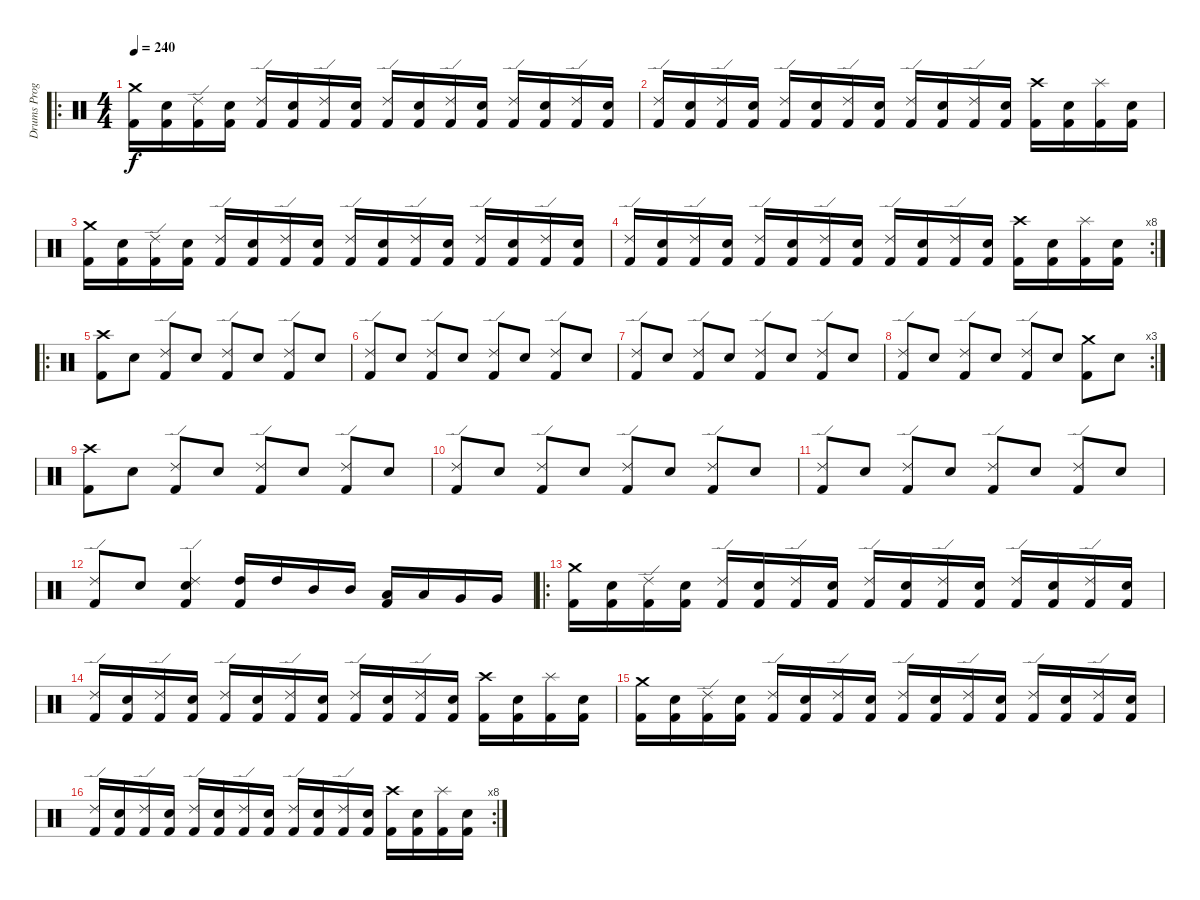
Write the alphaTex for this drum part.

\track ("Drums Programming" "Drums Prog") {instrument percussion}
\staff {score}
\articulation defaults
\ro
\ts (4 4)
\tempo 240
\clef neutral
\ks c
("Crash medium (hit)" "Kick (hit) 2").16{dy f} ("Electric Snare (hit)" "Kick (hit) 2").16 ("Ride (edge) 2" "Kick (hit) 2").16 ("Electric Snare (hit)" "Kick (hit) 2").16 ("Ride (edge) 2" "Kick (hit) 2").16 ("Electric Snare (hit)" "Kick (hit) 2").16 ("Ride (edge) 2" "Kick (hit) 2").16 ("Electric Snare (hit)" "Kick (hit) 2").16 ("Ride (edge) 2" "Kick (hit) 2").16 ("Electric Snare (hit)" "Kick (hit) 2").16 ("Ride (edge) 2" "Kick (hit) 2").16 ("Electric Snare (hit)" "Kick (hit) 2").16 ("Ride (edge) 2" "Kick (hit) 2").16 ("Electric Snare (hit)" "Kick (hit) 2").16 ("Ride (edge) 2" "Kick (hit) 2").16 ("Electric Snare (hit)" "Kick (hit) 2").16 |
("Ride (edge) 2" "Kick (hit) 2").16 ("Electric Snare (hit)" "Kick (hit) 2").16 ("Ride (edge) 2" "Kick (hit) 2").16 ("Electric Snare (hit)" "Kick (hit) 2").16 ("Ride (edge) 2" "Kick (hit) 2").16 ("Electric Snare (hit)" "Kick (hit) 2").16 ("Ride (edge) 2" "Kick (hit) 2").16 ("Electric Snare (hit)" "Kick (hit) 2").16 ("Ride (edge) 2" "Kick (hit) 2").16 ("Electric Snare (hit)" "Kick (hit) 2").16 ("Ride (edge) 2" "Kick (hit) 2").16 ("Electric Snare (hit)" "Kick (hit) 2").16 ("Crash high (hit)" "Kick (hit) 2").16 ("Electric Snare (hit)" "Kick (hit) 2").16 ("Splash (hit)" "Kick (hit) 2").16 ("Electric Snare (hit)" "Kick (hit) 2").16 |
("Crash medium (hit)" "Kick (hit) 2").16 ("Electric Snare (hit)" "Kick (hit) 2").16 ("Ride (edge) 2" "Kick (hit) 2").16 ("Electric Snare (hit)" "Kick (hit) 2").16 ("Ride (edge) 2" "Kick (hit) 2").16 ("Electric Snare (hit)" "Kick (hit) 2").16 ("Ride (edge) 2" "Kick (hit) 2").16 ("Electric Snare (hit)" "Kick (hit) 2").16 ("Ride (edge) 2" "Kick (hit) 2").16 ("Electric Snare (hit)" "Kick (hit) 2").16 ("Ride (edge) 2" "Kick (hit) 2").16 ("Electric Snare (hit)" "Kick (hit) 2").16 ("Ride (edge) 2" "Kick (hit) 2").16 ("Electric Snare (hit)" "Kick (hit) 2").16 ("Ride (edge) 2" "Kick (hit) 2").16 ("Electric Snare (hit)" "Kick (hit) 2").16 |
\rc 8
("Ride (edge) 2" "Kick (hit) 2").16 ("Electric Snare (hit)" "Kick (hit) 2").16 ("Ride (edge) 2" "Kick (hit) 2").16 ("Electric Snare (hit)" "Kick (hit) 2").16 ("Ride (edge) 2" "Kick (hit) 2").16 ("Electric Snare (hit)" "Kick (hit) 2").16 ("Ride (edge) 2" "Kick (hit) 2").16 ("Electric Snare (hit)" "Kick (hit) 2").16 ("Ride (edge) 2" "Kick (hit) 2").16 ("Electric Snare (hit)" "Kick (hit) 2").16 ("Ride (edge) 2" "Kick (hit) 2").16 ("Electric Snare (hit)" "Kick (hit) 2").16 ("Crash high (hit)" "Kick (hit) 2").16 ("Electric Snare (hit)" "Kick (hit) 2").16 ("Splash (hit)" "Kick (hit) 2").16 ("Electric Snare (hit)" "Kick (hit) 2").16 |
\ro
("Crash high (hit)" "Kick (hit) 2").8 "Electric Snare (hit)".8 ("Ride (edge) 2" "Kick (hit) 2").8 "Electric Snare (hit)".8 ("Ride (edge) 2" "Kick (hit) 2").8 "Electric Snare (hit)".8 ("Ride (edge) 2" "Kick (hit) 2").8 "Electric Snare (hit)".8 |
("Ride (edge) 2" "Kick (hit) 2").8 "Electric Snare (hit)".8 ("Ride (edge) 2" "Kick (hit) 2").8 "Electric Snare (hit)".8 ("Ride (edge) 2" "Kick (hit) 2").8 "Electric Snare (hit)".8 ("Ride (edge) 2" "Kick (hit) 2").8 "Electric Snare (hit)".8 |
("Ride (edge) 2" "Kick (hit) 2").8 "Electric Snare (hit)".8 ("Ride (edge) 2" "Kick (hit) 2").8 "Electric Snare (hit)".8 ("Ride (edge) 2" "Kick (hit) 2").8 "Electric Snare (hit)".8 ("Ride (edge) 2" "Kick (hit) 2").8 "Electric Snare (hit)".8 |
\rc 3
("Ride (edge) 2" "Kick (hit) 2").8 "Electric Snare (hit)".8 ("Ride (edge) 2" "Kick (hit) 2").8 "Electric Snare (hit)".8 ("Ride (edge) 2" "Kick (hit) 2").8 "Electric Snare (hit)".8 ("Crash medium (hit)" "Kick (hit) 2").8 "Electric Snare (hit)".8 |
("Crash high (hit)" "Kick (hit) 2").8 "Electric Snare (hit)".8 ("Ride (edge) 2" "Kick (hit) 2").8 "Electric Snare (hit)".8 ("Ride (edge) 2" "Kick (hit) 2").8 "Electric Snare (hit)".8 ("Ride (edge) 2" "Kick (hit) 2").8 "Electric Snare (hit)".8 |
("Ride (edge) 2" "Kick (hit) 2").8 "Electric Snare (hit)".8 ("Ride (edge) 2" "Kick (hit) 2").8 "Electric Snare (hit)".8 ("Ride (edge) 2" "Kick (hit) 2").8 "Electric Snare (hit)".8 ("Ride (edge) 2" "Kick (hit) 2").8 "Electric Snare (hit)".8 |
("Ride (edge) 2" "Kick (hit) 2").8 "Electric Snare (hit)".8 ("Ride (edge) 2" "Kick (hit) 2").8 "Electric Snare (hit)".8 ("Ride (edge) 2" "Kick (hit) 2").8 "Electric Snare (hit)".8 ("Ride (edge) 2" "Kick (hit) 2").8 "Electric Snare (hit)".8 |
("Ride (edge) 2" "Kick (hit) 2").8 "Electric Snare (hit)".8 ("Ride (edge) 2" "Electric Snare (hit)" "Kick (hit) 2").4 ("High Tom (hit)" "Kick (hit) 2").16 "High Tom (hit)".16 "Mid Tom (hit)".16 "Mid Tom (hit)".16 ("Low Tom (hit)" "Kick (hit) 2").16 "Low Tom (hit)".16 "Very Low Tom (hit)".16 "Very Low Tom (hit)".16 |
\ro
("Crash medium (hit)" "Kick (hit) 2").16 ("Electric Snare (hit)" "Kick (hit) 2").16 ("Ride (edge) 2" "Kick (hit) 2").16 ("Electric Snare (hit)" "Kick (hit) 2").16 ("Ride (edge) 2" "Kick (hit) 2").16 ("Electric Snare (hit)" "Kick (hit) 2").16 ("Ride (edge) 2" "Kick (hit) 2").16 ("Electric Snare (hit)" "Kick (hit) 2").16 ("Ride (edge) 2" "Kick (hit) 2").16 ("Electric Snare (hit)" "Kick (hit) 2").16 ("Ride (edge) 2" "Kick (hit) 2").16 ("Electric Snare (hit)" "Kick (hit) 2").16 ("Ride (edge) 2" "Kick (hit) 2").16 ("Electric Snare (hit)" "Kick (hit) 2").16 ("Ride (edge) 2" "Kick (hit) 2").16 ("Electric Snare (hit)" "Kick (hit) 2").16 |
("Ride (edge) 2" "Kick (hit) 2").16 ("Electric Snare (hit)" "Kick (hit) 2").16 ("Ride (edge) 2" "Kick (hit) 2").16 ("Electric Snare (hit)" "Kick (hit) 2").16 ("Ride (edge) 2" "Kick (hit) 2").16 ("Electric Snare (hit)" "Kick (hit) 2").16 ("Ride (edge) 2" "Kick (hit) 2").16 ("Electric Snare (hit)" "Kick (hit) 2").16 ("Ride (edge) 2" "Kick (hit) 2").16 ("Electric Snare (hit)" "Kick (hit) 2").16 ("Ride (edge) 2" "Kick (hit) 2").16 ("Electric Snare (hit)" "Kick (hit) 2").16 ("Crash high (hit)" "Kick (hit) 2").16 ("Electric Snare (hit)" "Kick (hit) 2").16 ("Splash (hit)" "Kick (hit) 2").16 ("Electric Snare (hit)" "Kick (hit) 2").16 |
("Crash medium (hit)" "Kick (hit) 2").16 ("Electric Snare (hit)" "Kick (hit) 2").16 ("Ride (edge) 2" "Kick (hit) 2").16 ("Electric Snare (hit)" "Kick (hit) 2").16 ("Ride (edge) 2" "Kick (hit) 2").16 ("Electric Snare (hit)" "Kick (hit) 2").16 ("Ride (edge) 2" "Kick (hit) 2").16 ("Electric Snare (hit)" "Kick (hit) 2").16 ("Ride (edge) 2" "Kick (hit) 2").16 ("Electric Snare (hit)" "Kick (hit) 2").16 ("Ride (edge) 2" "Kick (hit) 2").16 ("Electric Snare (hit)" "Kick (hit) 2").16 ("Ride (edge) 2" "Kick (hit) 2").16 ("Electric Snare (hit)" "Kick (hit) 2").16 ("Ride (edge) 2" "Kick (hit) 2").16 ("Electric Snare (hit)" "Kick (hit) 2").16 |
\rc 8
("Ride (edge) 2" "Kick (hit) 2").16 ("Electric Snare (hit)" "Kick (hit) 2").16 ("Ride (edge) 2" "Kick (hit) 2").16 ("Electric Snare (hit)" "Kick (hit) 2").16 ("Ride (edge) 2" "Kick (hit) 2").16 ("Electric Snare (hit)" "Kick (hit) 2").16 ("Ride (edge) 2" "Kick (hit) 2").16 ("Electric Snare (hit)" "Kick (hit) 2").16 ("Ride (edge) 2" "Kick (hit) 2").16 ("Electric Snare (hit)" "Kick (hit) 2").16 ("Ride (edge) 2" "Kick (hit) 2").16 ("Electric Snare (hit)" "Kick (hit) 2").16 ("Crash high (hit)" "Kick (hit) 2").16 ("Electric Snare (hit)" "Kick (hit) 2").16 ("Splash (hit)" "Kick (hit) 2").16 ("Electric Snare (hit)" "Kick (hit) 2").16
